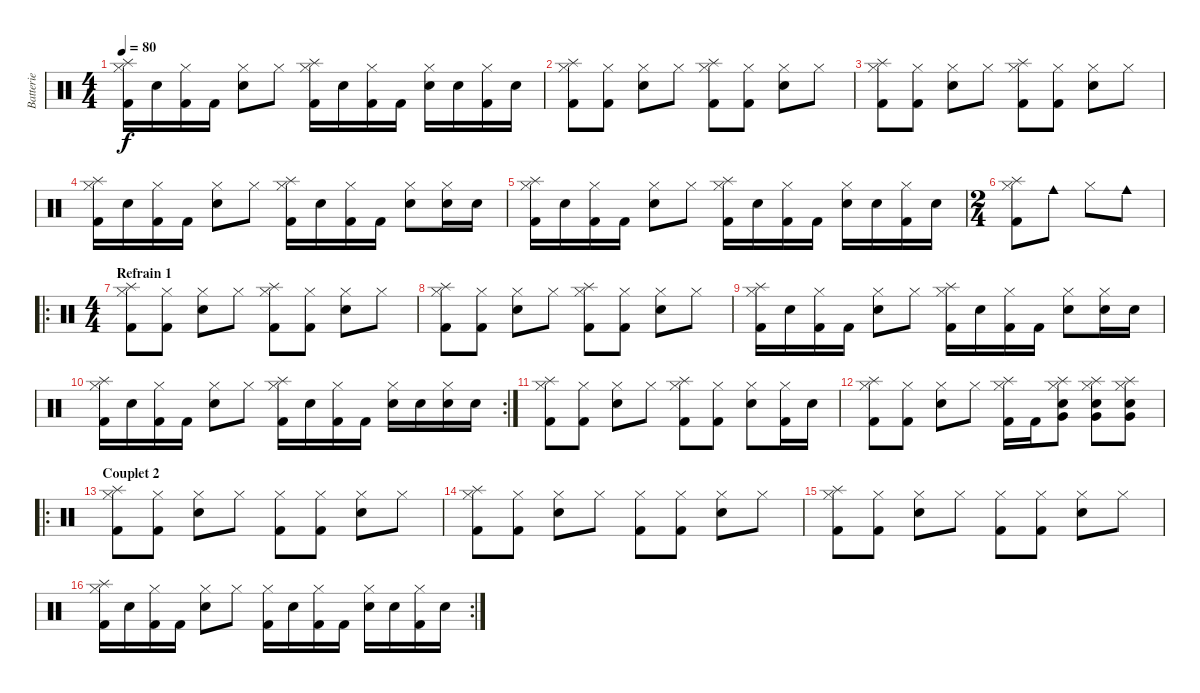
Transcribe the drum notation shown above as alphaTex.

\track ("Batterie" "Batterie") {instrument percussion}
\staff {score}
\articulation defaults
\ts (4 4)
\tempo 80
\clef neutral
\ks c
("Splash (hit)" "Hi-Hat (closed)" "Kick (hit) 2").16{dy f} "Snare (hit) 2".16 ("Hi-Hat (closed)" "Kick (hit) 2").16 "Kick (hit) 2".16 ("Hi-Hat (closed)" "Snare (hit) 2").8 "Hi-Hat (closed)".8 ("Splash (hit)" "Hi-Hat (closed)" "Kick (hit) 2").16 "Snare (hit) 2".16 ("Hi-Hat (closed)" "Kick (hit) 2").16 "Kick (hit) 2".16 ("Hi-Hat (closed)" "Snare (hit) 2").16 "Snare (hit) 2".16 ("Hi-Hat (closed)" "Kick (hit) 2").16 "Snare (hit) 2".16 |
("Splash (hit)" "Hi-Hat (closed)" "Kick (hit) 2").8 ("Hi-Hat (closed)" "Kick (hit) 2").8 ("Hi-Hat (closed)" "Snare (hit) 2").8 "Hi-Hat (closed)".8 ("Splash (hit)" "Hi-Hat (closed)" "Kick (hit) 2").8 ("Hi-Hat (closed)" "Kick (hit) 2").8 ("Hi-Hat (closed)" "Snare (hit) 2").8 "Hi-Hat (closed)".8 |
("Splash (hit)" "Hi-Hat (closed)" "Kick (hit) 2").8 ("Hi-Hat (closed)" "Kick (hit) 2").8 ("Hi-Hat (closed)" "Snare (hit) 2").8 "Hi-Hat (closed)".8 ("Splash (hit)" "Hi-Hat (closed)" "Kick (hit) 2").8 ("Hi-Hat (closed)" "Kick (hit) 2").8 ("Hi-Hat (closed)" "Snare (hit) 2").8 "Hi-Hat (closed)".8 |
("Splash (hit)" "Hi-Hat (closed)" "Kick (hit) 2").16 "Snare (hit) 2".16 ("Hi-Hat (closed)" "Kick (hit) 2").16 "Kick (hit) 2".16 ("Hi-Hat (closed)" "Snare (hit) 2").8 "Hi-Hat (closed)".8 ("Splash (hit)" "Hi-Hat (closed)" "Kick (hit) 2").16 "Snare (hit) 2".16 ("Hi-Hat (closed)" "Kick (hit) 2").16 "Kick (hit) 2".16 ("Hi-Hat (closed)" "Snare (hit) 2").8 ("Hi-Hat (closed)" "Snare (hit) 2").16 "Snare (hit) 2".16 |
("Splash (hit)" "Hi-Hat (closed)" "Kick (hit) 2").16 "Snare (hit) 2".16 ("Hi-Hat (closed)" "Kick (hit) 2").16 "Kick (hit) 2".16 ("Hi-Hat (closed)" "Snare (hit) 2").8 "Hi-Hat (closed)".8 ("Splash (hit)" "Hi-Hat (closed)" "Kick (hit) 2").16 "Snare (hit) 2".16 ("Hi-Hat (closed)" "Kick (hit) 2").16 "Kick (hit) 2".16 ("Hi-Hat (closed)" "Snare (hit) 2").16 "Snare (hit) 2".16 ("Hi-Hat (closed)" "Kick (hit) 2").16 "Snare (hit) 2".16 |
\ts (2 4)
("Splash (hit)" "Hi-Hat (closed)" "Kick (hit) 2").8 "Cowbell medium (hit)".8 "Hi-Hat (closed)".8 "Cowbell medium (hit)".8 |
\ro
\ts (4 4)
\section ("" "Refrain 1")
("Splash (hit)" "Hi-Hat (closed)" "Kick (hit) 2").8 ("Hi-Hat (closed)" "Kick (hit) 2").8 ("Hi-Hat (closed)" "Snare (hit) 2").8 "Hi-Hat (closed)".8 ("Splash (hit)" "Hi-Hat (closed)" "Kick (hit) 2").8 ("Hi-Hat (closed)" "Kick (hit) 2").8 ("Hi-Hat (closed)" "Snare (hit) 2").8 "Hi-Hat (closed)".8 |
("Splash (hit)" "Hi-Hat (closed)" "Kick (hit) 2").8 ("Hi-Hat (closed)" "Kick (hit) 2").8 ("Hi-Hat (closed)" "Snare (hit) 2").8 "Hi-Hat (closed)".8 ("Splash (hit)" "Hi-Hat (closed)" "Kick (hit) 2").8 ("Hi-Hat (closed)" "Kick (hit) 2").8 ("Hi-Hat (closed)" "Snare (hit) 2").8 "Hi-Hat (closed)".8 |
("Splash (hit)" "Hi-Hat (closed)" "Kick (hit) 2").16 "Snare (hit) 2".16 ("Hi-Hat (closed)" "Kick (hit) 2").16 "Kick (hit) 2".16 ("Hi-Hat (closed)" "Snare (hit) 2").8 "Hi-Hat (closed)".8 ("Splash (hit)" "Hi-Hat (closed)" "Kick (hit) 2").16 "Snare (hit) 2".16 ("Hi-Hat (closed)" "Kick (hit) 2").16 "Kick (hit) 2".16 ("Hi-Hat (closed)" "Snare (hit) 2").8 ("Hi-Hat (closed)" "Snare (hit) 2").16 "Snare (hit) 2".16 |
\rc 2
("Splash (hit)" "Hi-Hat (closed)" "Kick (hit) 2").16 "Snare (hit) 2".16 ("Hi-Hat (closed)" "Kick (hit) 2").16 "Kick (hit) 2".16 ("Hi-Hat (closed)" "Snare (hit) 2").8 "Hi-Hat (closed)".8 ("Splash (hit)" "Hi-Hat (closed)" "Kick (hit) 2").16 "Snare (hit) 2".16 ("Hi-Hat (closed)" "Kick (hit) 2").16 "Kick (hit) 2".16 ("Hi-Hat (closed)" "Snare (hit) 2").16 "Snare (hit) 2".16 ("Hi-Hat (closed)" "Snare (hit) 2").16 "Snare (hit) 2".16 |
("Splash (hit)" "Hi-Hat (closed)" "Kick (hit) 2").8 ("Hi-Hat (closed)" "Kick (hit) 2").8 ("Hi-Hat (closed)" "Snare (hit) 2").8 "Hi-Hat (closed)".8 ("Splash (hit)" "Hi-Hat (closed)" "Kick (hit) 2").8 ("Hi-Hat (closed)" "Kick (hit) 2").8 ("Hi-Hat (closed)" "Snare (hit) 2").8 ("Hi-Hat (closed)" "Kick (hit) 2").16 "Snare (hit) 2".16 |
("Splash (hit)" "Hi-Hat (closed)" "Kick (hit) 2").8 ("Hi-Hat (closed)" "Kick (hit) 2").8 ("Hi-Hat (closed)" "Snare (hit) 2").8 "Hi-Hat (closed)".8 ("Splash (hit)" "Hi-Hat (closed)" "Kick (hit) 2").16 "Kick (hit) 2".16 ("Splash (hit)" "Hi-Hat (closed)" "Snare (hit) 2" "Very Low Tom (hit)").8 ("Splash (hit)" "Hi-Hat (closed)" "Snare (hit) 2" "Very Low Tom (hit)").8 ("Splash (hit)" "Hi-Hat (closed)" "Snare (hit) 2" "Very Low Tom (hit)").8 |
\ro
\section ("" "Couplet 2")
("Splash (hit)" "Hi-Hat (closed)" "Kick (hit) 2").8 ("Hi-Hat (closed)" "Kick (hit) 2").8 ("Hi-Hat (closed)" "Snare (hit) 2").8 "Hi-Hat (closed)".8 ("Hi-Hat (closed)" "Kick (hit) 2").8 ("Hi-Hat (closed)" "Kick (hit) 2").8 ("Hi-Hat (closed)" "Snare (hit) 2").8 "Hi-Hat (closed)".8 |
("Splash (hit)" "Hi-Hat (closed)" "Kick (hit) 2").8 ("Hi-Hat (closed)" "Kick (hit) 2").8 ("Hi-Hat (closed)" "Snare (hit) 2").8 "Hi-Hat (closed)".8 ("Hi-Hat (closed)" "Kick (hit) 2").8 ("Hi-Hat (closed)" "Kick (hit) 2").8 ("Hi-Hat (closed)" "Snare (hit) 2").8 "Hi-Hat (closed)".8 |
("Splash (hit)" "Hi-Hat (closed)" "Kick (hit) 2").8 ("Hi-Hat (closed)" "Kick (hit) 2").8 ("Hi-Hat (closed)" "Snare (hit) 2").8 "Hi-Hat (closed)".8 ("Hi-Hat (closed)" "Kick (hit) 2").8 ("Hi-Hat (closed)" "Kick (hit) 2").8 ("Hi-Hat (closed)" "Snare (hit) 2").8 "Hi-Hat (closed)".8 |
\rc 2
("Splash (hit)" "Hi-Hat (closed)" "Kick (hit) 2").16 "Snare (hit) 2".16 ("Hi-Hat (closed)" "Kick (hit) 2").16 "Kick (hit) 2".16 ("Hi-Hat (closed)" "Snare (hit) 2").8 "Hi-Hat (closed)".8 ("Hi-Hat (closed)" "Kick (hit) 2").16 "Snare (hit) 2".16 ("Hi-Hat (closed)" "Kick (hit) 2").16 "Kick (hit) 2".16 ("Hi-Hat (closed)" "Snare (hit) 2").16 "Snare (hit) 2".16 ("Hi-Hat (closed)" "Kick (hit) 2").16 "Snare (hit) 2".16
